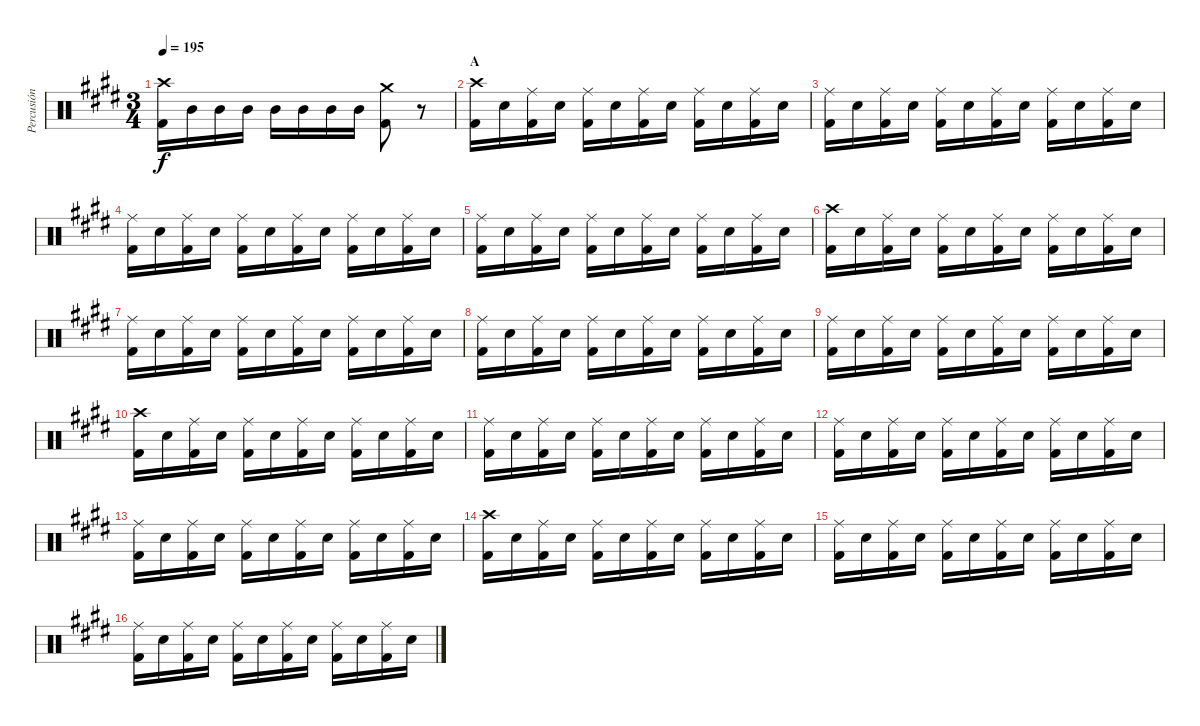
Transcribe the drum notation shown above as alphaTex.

\track ("Percusión" "Percusión") {instrument percussion}
\staff {score}
\articulation defaults
\ts (3 4)
\tempo 195
\clef neutral
\ks e
("Crash high (hit)" "Kick (hit) 2").16{dy f} "Mid Tom (hit)".16 "Mid Tom (hit)".16 "Mid Tom (hit)".16 "Mid Tom (hit)".16 "Mid Tom (hit)".16 "Mid Tom (hit)".16 "Mid Tom (hit)".16 ("Crash medium (hit)" "Kick (hit) 2").8 r.8 |
\section ("" "A")
("Crash high (hit)" "Kick (hit) 2").16 "Electric Snare (hit)".16 ("Ride (middle)" "Kick (hit) 2").16 "Electric Snare (hit)".16 ("Ride (middle)" "Kick (hit) 2").16 "Electric Snare (hit)".16 ("Ride (middle)" "Kick (hit) 2").16 "Electric Snare (hit)".16 ("Ride (middle)" "Kick (hit) 2").16 "Electric Snare (hit)".16 ("Ride (middle)" "Kick (hit) 2").16 "Electric Snare (hit)".16 |
("Ride (middle)" "Kick (hit) 2").16 "Electric Snare (hit)".16 ("Ride (middle)" "Kick (hit) 2").16 "Electric Snare (hit)".16 ("Ride (middle)" "Kick (hit) 2").16 "Electric Snare (hit)".16 ("Ride (middle)" "Kick (hit) 2").16 "Electric Snare (hit)".16 ("Ride (middle)" "Kick (hit) 2").16 "Electric Snare (hit)".16 ("Ride (middle)" "Kick (hit) 2").16 "Electric Snare (hit)".16 |
("Ride (middle)" "Kick (hit) 2").16 "Electric Snare (hit)".16 ("Ride (middle)" "Kick (hit) 2").16 "Electric Snare (hit)".16 ("Ride (middle)" "Kick (hit) 2").16 "Electric Snare (hit)".16 ("Ride (middle)" "Kick (hit) 2").16 "Electric Snare (hit)".16 ("Ride (middle)" "Kick (hit) 2").16 "Electric Snare (hit)".16 ("Ride (middle)" "Kick (hit) 2").16 "Electric Snare (hit)".16 |
("Ride (middle)" "Kick (hit) 2").16 "Electric Snare (hit)".16 ("Ride (middle)" "Kick (hit) 2").16 "Electric Snare (hit)".16 ("Ride (middle)" "Kick (hit) 2").16 "Electric Snare (hit)".16 ("Ride (middle)" "Kick (hit) 2").16 "Electric Snare (hit)".16 ("Ride (middle)" "Kick (hit) 2").16 "Electric Snare (hit)".16 ("Ride (middle)" "Kick (hit) 2").16 "Electric Snare (hit)".16 |
("Crash high (hit)" "Kick (hit) 2").16 "Electric Snare (hit)".16 ("Ride (middle)" "Kick (hit) 2").16 "Electric Snare (hit)".16 ("Ride (middle)" "Kick (hit) 2").16 "Electric Snare (hit)".16 ("Ride (middle)" "Kick (hit) 2").16 "Electric Snare (hit)".16 ("Ride (middle)" "Kick (hit) 2").16 "Electric Snare (hit)".16 ("Ride (middle)" "Kick (hit) 2").16 "Electric Snare (hit)".16 |
("Ride (middle)" "Kick (hit) 2").16 "Electric Snare (hit)".16 ("Ride (middle)" "Kick (hit) 2").16 "Electric Snare (hit)".16 ("Ride (middle)" "Kick (hit) 2").16 "Electric Snare (hit)".16 ("Ride (middle)" "Kick (hit) 2").16 "Electric Snare (hit)".16 ("Ride (middle)" "Kick (hit) 2").16 "Electric Snare (hit)".16 ("Ride (middle)" "Kick (hit) 2").16 "Electric Snare (hit)".16 |
("Ride (middle)" "Kick (hit) 2").16 "Electric Snare (hit)".16 ("Ride (middle)" "Kick (hit) 2").16 "Electric Snare (hit)".16 ("Ride (middle)" "Kick (hit) 2").16 "Electric Snare (hit)".16 ("Ride (middle)" "Kick (hit) 2").16 "Electric Snare (hit)".16 ("Ride (middle)" "Kick (hit) 2").16 "Electric Snare (hit)".16 ("Ride (middle)" "Kick (hit) 2").16 "Electric Snare (hit)".16 |
("Ride (middle)" "Kick (hit) 2").16 "Electric Snare (hit)".16 ("Ride (middle)" "Kick (hit) 2").16 "Electric Snare (hit)".16 ("Ride (middle)" "Kick (hit) 2").16 "Electric Snare (hit)".16 ("Ride (middle)" "Kick (hit) 2").16 "Electric Snare (hit)".16 ("Ride (middle)" "Kick (hit) 2").16 "Electric Snare (hit)".16 ("Ride (middle)" "Kick (hit) 2").16 "Electric Snare (hit)".16 |
("Crash high (hit)" "Kick (hit) 2").16 "Electric Snare (hit)".16 ("Ride (middle)" "Kick (hit) 2").16 "Electric Snare (hit)".16 ("Ride (middle)" "Kick (hit) 2").16 "Electric Snare (hit)".16 ("Ride (middle)" "Kick (hit) 2").16 "Electric Snare (hit)".16 ("Ride (middle)" "Kick (hit) 2").16 "Electric Snare (hit)".16 ("Ride (middle)" "Kick (hit) 2").16 "Electric Snare (hit)".16 |
("Ride (middle)" "Kick (hit) 2").16 "Electric Snare (hit)".16 ("Ride (middle)" "Kick (hit) 2").16 "Electric Snare (hit)".16 ("Ride (middle)" "Kick (hit) 2").16 "Electric Snare (hit)".16 ("Ride (middle)" "Kick (hit) 2").16 "Electric Snare (hit)".16 ("Ride (middle)" "Kick (hit) 2").16 "Electric Snare (hit)".16 ("Ride (middle)" "Kick (hit) 2").16 "Electric Snare (hit)".16 |
("Ride (middle)" "Kick (hit) 2").16 "Electric Snare (hit)".16 ("Ride (middle)" "Kick (hit) 2").16 "Electric Snare (hit)".16 ("Ride (middle)" "Kick (hit) 2").16 "Electric Snare (hit)".16 ("Ride (middle)" "Kick (hit) 2").16 "Electric Snare (hit)".16 ("Ride (middle)" "Kick (hit) 2").16 "Electric Snare (hit)".16 ("Ride (middle)" "Kick (hit) 2").16 "Electric Snare (hit)".16 |
("Ride (middle)" "Kick (hit) 2").16 "Electric Snare (hit)".16 ("Ride (middle)" "Kick (hit) 2").16 "Electric Snare (hit)".16 ("Ride (middle)" "Kick (hit) 2").16 "Electric Snare (hit)".16 ("Ride (middle)" "Kick (hit) 2").16 "Electric Snare (hit)".16 ("Ride (middle)" "Kick (hit) 2").16 "Electric Snare (hit)".16 ("Ride (middle)" "Kick (hit) 2").16 "Electric Snare (hit)".16 |
("Crash high (hit)" "Kick (hit) 2").16 "Electric Snare (hit)".16 ("Ride (middle)" "Kick (hit) 2").16 "Electric Snare (hit)".16 ("Ride (middle)" "Kick (hit) 2").16 "Electric Snare (hit)".16 ("Ride (middle)" "Kick (hit) 2").16 "Electric Snare (hit)".16 ("Ride (middle)" "Kick (hit) 2").16 "Electric Snare (hit)".16 ("Ride (middle)" "Kick (hit) 2").16 "Electric Snare (hit)".16 |
("Ride (middle)" "Kick (hit) 2").16 "Electric Snare (hit)".16 ("Ride (middle)" "Kick (hit) 2").16 "Electric Snare (hit)".16 ("Ride (middle)" "Kick (hit) 2").16 "Electric Snare (hit)".16 ("Ride (middle)" "Kick (hit) 2").16 "Electric Snare (hit)".16 ("Ride (middle)" "Kick (hit) 2").16 "Electric Snare (hit)".16 ("Ride (middle)" "Kick (hit) 2").16 "Electric Snare (hit)".16 |
("Ride (middle)" "Kick (hit) 2").16 "Electric Snare (hit)".16 ("Ride (middle)" "Kick (hit) 2").16 "Electric Snare (hit)".16 ("Ride (middle)" "Kick (hit) 2").16 "Electric Snare (hit)".16 ("Ride (middle)" "Kick (hit) 2").16 "Electric Snare (hit)".16 ("Ride (middle)" "Kick (hit) 2").16 "Electric Snare (hit)".16 ("Ride (middle)" "Kick (hit) 2").16 "Electric Snare (hit)".16
